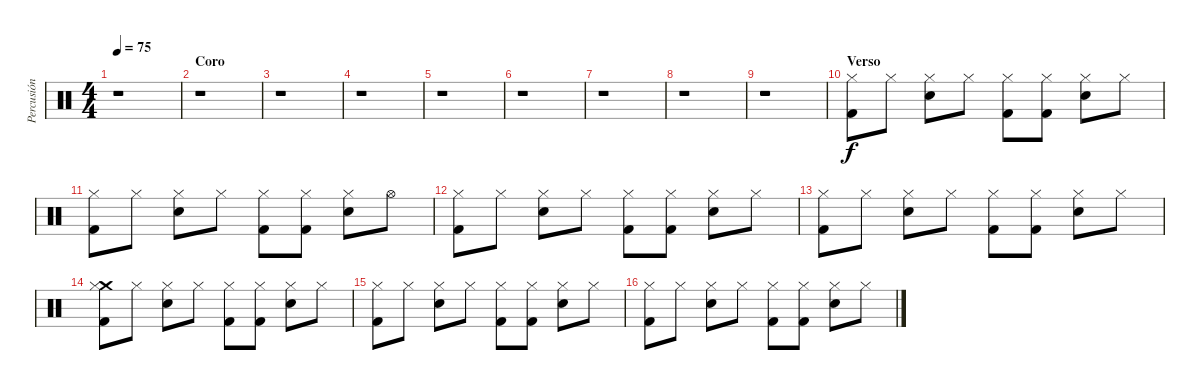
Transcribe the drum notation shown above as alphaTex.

\track ("Percusión" "Percusión") {instrument percussion}
\staff {score}
\articulation defaults
\ts (4 4)
\tempo 75
\clef neutral
\ks c
r.1{dy f} |
\section ("" "Coro")
r.1 |
r.1 |
r.1 |
r.1 |
r.1 |
r.1 |
r.1 |
r.1 |
\section ("" "Verso")
("Hi-Hat (closed)" "Kick (hit) 2").8 "Hi-Hat (closed)".8 ("Hi-Hat (closed)" "Electric Snare (hit)").8 "Hi-Hat (closed)".8 ("Hi-Hat (closed)" "Kick (hit) 2").8 ("Hi-Hat (closed)" "Kick (hit) 2").8 ("Hi-Hat (closed)" "Electric Snare (hit)").8 "Hi-Hat (closed)".8 |
("Hi-Hat (closed)" "Kick (hit) 2").8 "Hi-Hat (closed)".8 ("Hi-Hat (closed)" "Electric Snare (hit)").8 "Hi-Hat (closed)".8 ("Hi-Hat (closed)" "Kick (hit) 2").8 ("Hi-Hat (closed)" "Kick (hit) 2").8 ("Hi-Hat (closed)" "Electric Snare (hit)").8 "Hi-Hat (open)".8 |
("Hi-Hat (closed)" "Kick (hit) 2").8 "Hi-Hat (closed)".8 ("Hi-Hat (closed)" "Electric Snare (hit)").8 "Hi-Hat (closed)".8 ("Hi-Hat (closed)" "Kick (hit) 2").8 ("Hi-Hat (closed)" "Kick (hit) 2").8 ("Hi-Hat (closed)" "Electric Snare (hit)").8 "Hi-Hat (closed)".8 |
("Hi-Hat (closed)" "Kick (hit) 2").8 "Hi-Hat (closed)".8 ("Hi-Hat (closed)" "Electric Snare (hit)").8 "Hi-Hat (closed)".8 ("Hi-Hat (closed)" "Kick (hit) 2").8 ("Hi-Hat (closed)" "Kick (hit) 2").8 ("Hi-Hat (closed)" "Electric Snare (hit)").8 "Hi-Hat (closed)".8 |
("Crash medium (hit)" "Hi-Hat (closed)" "Kick (hit) 2").8 "Hi-Hat (closed)".8 ("Hi-Hat (closed)" "Electric Snare (hit)").8 "Hi-Hat (closed)".8 ("Hi-Hat (closed)" "Kick (hit) 2").8 ("Hi-Hat (closed)" "Kick (hit) 2").8 ("Hi-Hat (closed)" "Electric Snare (hit)").8 "Hi-Hat (closed)".8 |
("Hi-Hat (closed)" "Kick (hit) 2").8 "Hi-Hat (closed)".8 ("Hi-Hat (closed)" "Electric Snare (hit)").8 "Hi-Hat (closed)".8 ("Hi-Hat (closed)" "Kick (hit) 2").8 ("Hi-Hat (closed)" "Kick (hit) 2").8 ("Hi-Hat (closed)" "Electric Snare (hit)").8 "Hi-Hat (closed)".8 |
("Hi-Hat (closed)" "Kick (hit) 2").8 "Hi-Hat (closed)".8 ("Hi-Hat (closed)" "Electric Snare (hit)").8 "Hi-Hat (closed)".8 ("Hi-Hat (closed)" "Kick (hit) 2").8 ("Hi-Hat (closed)" "Kick (hit) 2").8 ("Hi-Hat (closed)" "Electric Snare (hit)").8 "Hi-Hat (closed)".8
